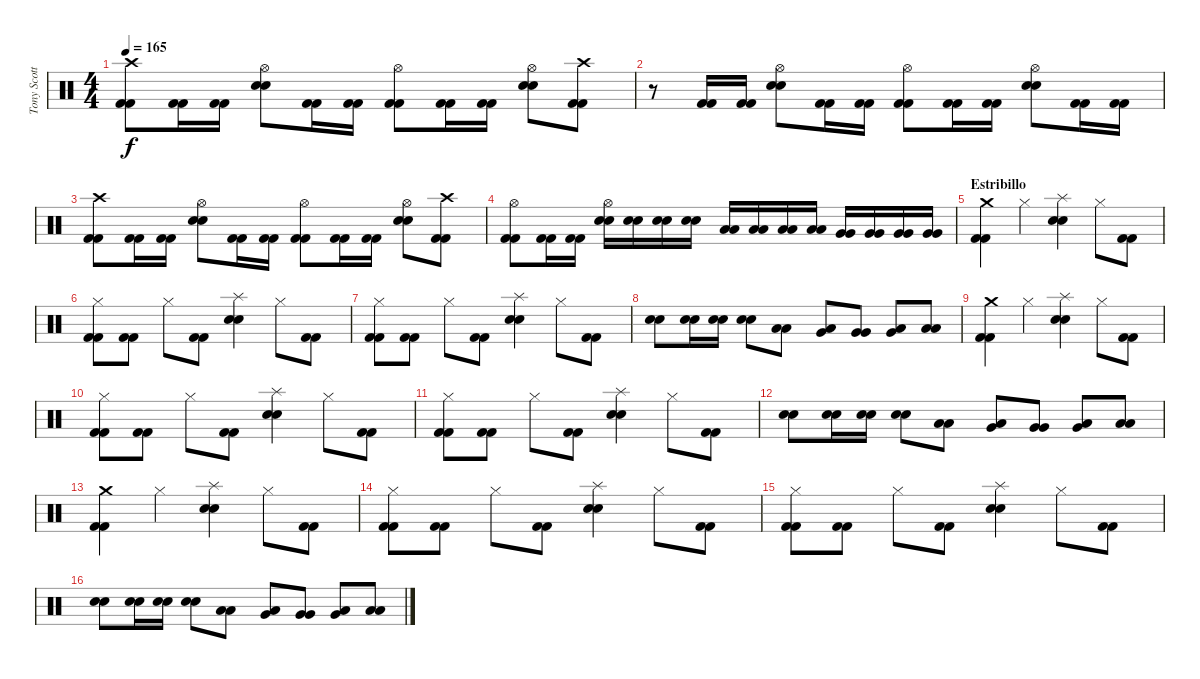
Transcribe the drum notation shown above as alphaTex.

\track ("Tony Scotto (bateria)" "Tony Scott") {instrument percussion}
\staff {score}
\articulation defaults
\ts (4 4)
\tempo 165
\clef neutral
\ks c
("Crash high (hit)" "Kick (hit) 2" "Kick (hit) 2").8{dy f} ("Kick (hit) 2" "Kick (hit) 2").16 ("Kick (hit) 2" "Kick (hit) 2").16 ("Hi-Hat (open)" "Snare (hit) 2" "Snare (hit) 2").8 ("Kick (hit) 2" "Kick (hit) 2").16 ("Kick (hit) 2" "Kick (hit) 2").16 ("Hi-Hat (open)" "Kick (hit) 2" "Kick (hit) 2").8 ("Kick (hit) 2" "Kick (hit) 2").16 ("Kick (hit) 2" "Kick (hit) 2").16 ("Hi-Hat (open)" "Snare (hit) 2" "Snare (hit) 2").8 ("Crash high (hit)" "Kick (hit) 2" "Kick (hit) 2").8 |
r.8 ("Kick (hit) 2" "Kick (hit) 2").16 ("Kick (hit) 2" "Kick (hit) 2").16 ("Hi-Hat (open)" "Snare (hit) 2" "Snare (hit) 2").8 ("Kick (hit) 2" "Kick (hit) 2").16 ("Kick (hit) 2" "Kick (hit) 2").16 ("Hi-Hat (open)" "Kick (hit) 2" "Kick (hit) 2").8 ("Kick (hit) 2" "Kick (hit) 2").16 ("Kick (hit) 2" "Kick (hit) 2").16 ("Hi-Hat (open)" "Snare (hit) 2" "Snare (hit) 2").8 ("Kick (hit) 2" "Kick (hit) 2").16 ("Kick (hit) 2" "Kick (hit) 2").16 |
("Crash high (hit)" "Kick (hit) 2" "Kick (hit) 2").8 ("Kick (hit) 2" "Kick (hit) 2").16 ("Kick (hit) 2" "Kick (hit) 2").16 ("Hi-Hat (open)" "Snare (hit) 2" "Snare (hit) 2").8 ("Kick (hit) 2" "Kick (hit) 2").16 ("Kick (hit) 2" "Kick (hit) 2").16 ("Hi-Hat (open)" "Kick (hit) 2" "Kick (hit) 2").8 ("Kick (hit) 2" "Kick (hit) 2").16 ("Kick (hit) 2" "Kick (hit) 2").16 ("Hi-Hat (open)" "Snare (hit) 2" "Snare (hit) 2").8 ("Crash high (hit)" "Kick (hit) 2" "Kick (hit) 2").8 |
("Hi-Hat (open)" "Kick (hit) 2" "Kick (hit) 2").8 ("Kick (hit) 2" "Kick (hit) 2").16 ("Kick (hit) 2" "Kick (hit) 2").16 ("Hi-Hat (open)" "Snare (hit) 2" "Snare (hit) 2").16 ("Snare (hit) 2" "Snare (hit) 2").16 ("Snare (hit) 2" "Snare (hit) 2").16 ("Snare (hit) 2" "Snare (hit) 2").16 ("Low Tom (hit)" "Low Tom (hit)").16 ("Low Tom (hit)" "Low Tom (hit)").16 ("Low Tom (hit)" "Low Tom (hit)").16 ("Low Tom (hit)" "Low Tom (hit)").16 ("Very Low Tom (hit)" "Very Low Tom (hit)").16 ("Very Low Tom (hit)" "Very Low Tom (hit)").16 ("Very Low Tom (hit)" "Very Low Tom (hit)").16 ("Very Low Tom (hit)" "Very Low Tom (hit)").16 |
\section ("" "Estribillo")
("Crash medium (hit)" "Kick (hit) 2" "Kick (hit) 2").4 "Hi-Hat (closed)".4 ("Splash (hit)" "Snare (hit) 2" "Snare (hit) 2").4 "Hi-Hat (closed)".8 ("Kick (hit) 2" "Kick (hit) 2").8 |
("Hi-Hat (closed)" "Kick (hit) 2" "Kick (hit) 2").8 ("Kick (hit) 2" "Kick (hit) 2").8 "Hi-Hat (closed)".8 ("Kick (hit) 2" "Kick (hit) 2").8 ("Splash (hit)" "Snare (hit) 2" "Snare (hit) 2").4 "Hi-Hat (closed)".8 ("Kick (hit) 2" "Kick (hit) 2").8 |
("Hi-Hat (closed)" "Kick (hit) 2" "Kick (hit) 2").8 ("Kick (hit) 2" "Kick (hit) 2").8 "Hi-Hat (closed)".8 ("Kick (hit) 2" "Kick (hit) 2").8 ("Splash (hit)" "Snare (hit) 2" "Snare (hit) 2").4 "Hi-Hat (closed)".8 ("Kick (hit) 2" "Kick (hit) 2").8 |
("Snare (hit) 2" "Snare (hit) 2").8 ("Snare (hit) 2" "Snare (hit) 2").16 ("Snare (hit) 2" "Snare (hit) 2").16 ("Snare (hit) 2" "Snare (hit) 2").8 ("Low Tom (hit)" "Low Tom (hit)").8 ("Low Tom (hit)" "Very Low Tom (hit)").8 ("Very Low Tom (hit)" "Very Low Tom (hit)").8 ("Low Floor Tom (hit)" "Very Low Tom (hit)").8 ("Low Floor Tom (hit)" "Low Floor Tom (hit)").8 |
("Crash medium (hit)" "Kick (hit) 2" "Kick (hit) 2").4 "Hi-Hat (closed)".4 ("Splash (hit)" "Snare (hit) 2" "Snare (hit) 2").4 "Hi-Hat (closed)".8 ("Kick (hit) 2" "Kick (hit) 2").8 |
("Hi-Hat (closed)" "Kick (hit) 2" "Kick (hit) 2").8 ("Kick (hit) 2" "Kick (hit) 2").8 "Hi-Hat (closed)".8 ("Kick (hit) 2" "Kick (hit) 2").8 ("Splash (hit)" "Snare (hit) 2" "Snare (hit) 2").4 "Hi-Hat (closed)".8 ("Kick (hit) 2" "Kick (hit) 2").8 |
("Hi-Hat (closed)" "Kick (hit) 2" "Kick (hit) 2").8 ("Kick (hit) 2" "Kick (hit) 2").8 "Hi-Hat (closed)".8 ("Kick (hit) 2" "Kick (hit) 2").8 ("Splash (hit)" "Snare (hit) 2" "Snare (hit) 2").4 "Hi-Hat (closed)".8 ("Kick (hit) 2" "Kick (hit) 2").8 |
("Snare (hit) 2" "Snare (hit) 2").8 ("Snare (hit) 2" "Snare (hit) 2").16 ("Snare (hit) 2" "Snare (hit) 2").16 ("Snare (hit) 2" "Snare (hit) 2").8 ("Low Tom (hit)" "Low Tom (hit)").8 ("Low Tom (hit)" "Very Low Tom (hit)").8 ("Very Low Tom (hit)" "Very Low Tom (hit)").8 ("Low Floor Tom (hit)" "Very Low Tom (hit)").8 ("Low Floor Tom (hit)" "Low Floor Tom (hit)").8 |
("Crash medium (hit)" "Kick (hit) 2" "Kick (hit) 2").4 "Hi-Hat (closed)".4 ("Splash (hit)" "Snare (hit) 2" "Snare (hit) 2").4 "Hi-Hat (closed)".8 ("Kick (hit) 2" "Kick (hit) 2").8 |
("Hi-Hat (closed)" "Kick (hit) 2" "Kick (hit) 2").8 ("Kick (hit) 2" "Kick (hit) 2").8 "Hi-Hat (closed)".8 ("Kick (hit) 2" "Kick (hit) 2").8 ("Splash (hit)" "Snare (hit) 2" "Snare (hit) 2").4 "Hi-Hat (closed)".8 ("Kick (hit) 2" "Kick (hit) 2").8 |
("Hi-Hat (closed)" "Kick (hit) 2" "Kick (hit) 2").8 ("Kick (hit) 2" "Kick (hit) 2").8 "Hi-Hat (closed)".8 ("Kick (hit) 2" "Kick (hit) 2").8 ("Splash (hit)" "Snare (hit) 2" "Snare (hit) 2").4 "Hi-Hat (closed)".8 ("Kick (hit) 2" "Kick (hit) 2").8 |
("Snare (hit) 2" "Snare (hit) 2").8 ("Snare (hit) 2" "Snare (hit) 2").16 ("Snare (hit) 2" "Snare (hit) 2").16 ("Snare (hit) 2" "Snare (hit) 2").8 ("Low Tom (hit)" "Low Tom (hit)").8 ("Low Tom (hit)" "Very Low Tom (hit)").8 ("Very Low Tom (hit)" "Very Low Tom (hit)").8 ("Low Floor Tom (hit)" "Very Low Tom (hit)").8 ("Low Floor Tom (hit)" "Low Floor Tom (hit)").8
